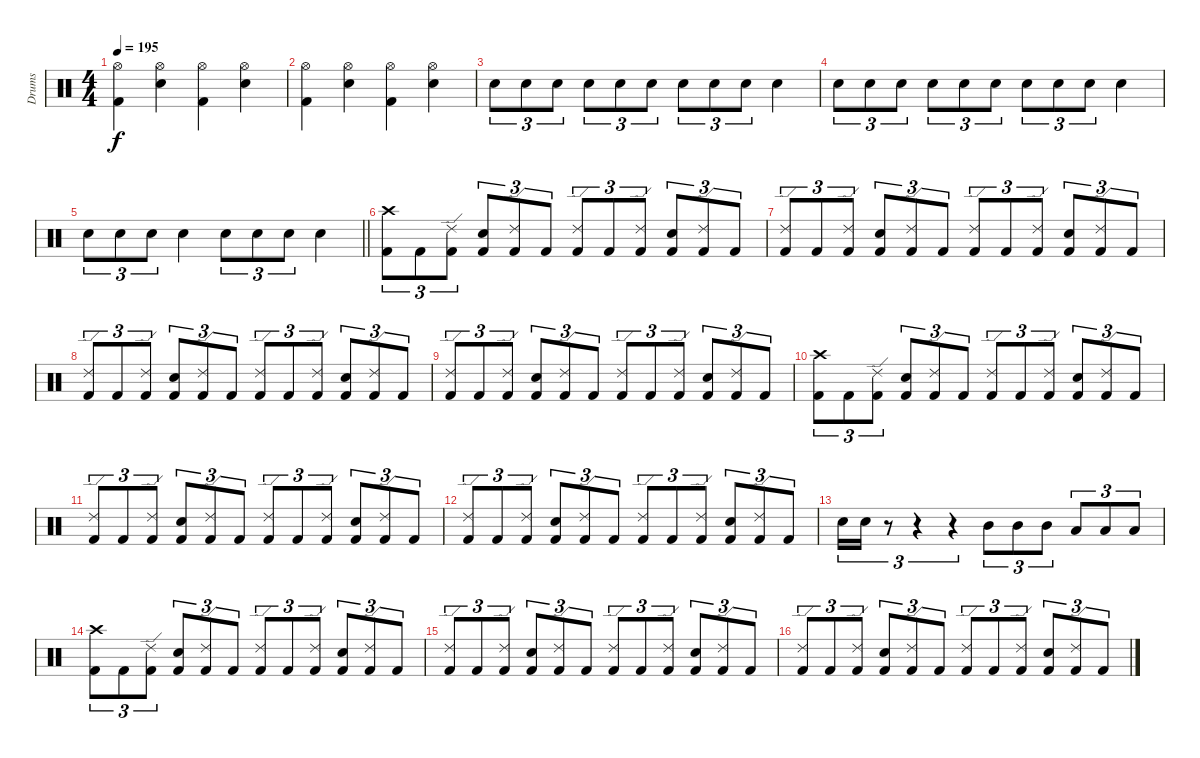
\track ("Drums" "Drums") {instrument percussion}
\staff {score}
\articulation defaults
\ts (4 4)
\tempo 195
\clef neutral
\ks c
("Hi-Hat (open)" "Kick (hit) 2").4{dy f} ("Hi-Hat (open)" "Snare (hit) 2").4 ("Hi-Hat (open)" "Kick (hit) 2").4 ("Hi-Hat (open)" "Snare (hit) 2").4 |
("Hi-Hat (open)" "Kick (hit) 2").4 ("Hi-Hat (open)" "Snare (hit) 2").4 ("Hi-Hat (open)" "Kick (hit) 2").4 ("Hi-Hat (open)" "Snare (hit) 2").4 |
"Snare (hit) 2".8{tu (3 2)} "Snare (hit) 2".8{tu (3 2)} "Snare (hit) 2".8{tu (3 2)} "Snare (hit) 2".8{tu (3 2)} "Snare (hit) 2".8{tu (3 2)} "Snare (hit) 2".8{tu (3 2)} "Snare (hit) 2".8{tu (3 2)} "Snare (hit) 2".8{tu (3 2)} "Snare (hit) 2".8{tu (3 2)} "Snare (hit) 2".4 |
"Snare (hit) 2".8{tu (3 2)} "Snare (hit) 2".8{tu (3 2)} "Snare (hit) 2".8{tu (3 2)} "Snare (hit) 2".8{tu (3 2)} "Snare (hit) 2".8{tu (3 2)} "Snare (hit) 2".8{tu (3 2)} "Snare (hit) 2".8{tu (3 2)} "Snare (hit) 2".8{tu (3 2)} "Snare (hit) 2".8{tu (3 2)} "Snare (hit) 2".4 |
\barLineRight lightlight "Snare (hit) 2".8{tu (3 2)} "Snare (hit) 2".8{tu (3 2)} "Snare (hit) 2".8{tu (3 2)} "Snare (hit) 2".4 "Snare (hit) 2".8{tu (3 2)} "Snare (hit) 2".8{tu (3 2)} "Snare (hit) 2".8{tu (3 2)} "Snare (hit) 2".4
|
("Crash high (hit)" "Kick (hit) 2").8{tu (3 2)} "Kick (hit) 2".8{tu (3 2)} ("Ride (edge) 2" "Kick (hit) 2").8{tu (3 2)} ("Snare (hit) 2" "Kick (hit) 2").8{tu (3 2)} ("Ride (edge) 2" "Kick (hit) 2").8{tu (3 2)} "Kick (hit) 2".8{tu (3 2)} ("Ride (edge) 2" "Kick (hit) 2").8{tu (3 2)} "Kick (hit) 2".8{tu (3 2)} ("Ride (edge) 2" "Kick (hit) 2").8{tu (3 2)} ("Snare (hit) 2" "Kick (hit) 2").8{tu (3 2)} ("Ride (edge) 2" "Kick (hit) 2").8{tu (3 2)} "Kick (hit) 2".8{tu (3 2)} |
("Ride (edge) 2" "Kick (hit) 2").8{tu (3 2)} "Kick (hit) 2".8{tu (3 2)} ("Ride (edge) 2" "Kick (hit) 2").8{tu (3 2)} ("Snare (hit) 2" "Kick (hit) 2").8{tu (3 2)} ("Ride (edge) 2" "Kick (hit) 2").8{tu (3 2)} "Kick (hit) 2".8{tu (3 2)} ("Ride (edge) 2" "Kick (hit) 2").8{tu (3 2)} "Kick (hit) 2".8{tu (3 2)} ("Ride (edge) 2" "Kick (hit) 2").8{tu (3 2)} ("Snare (hit) 2" "Kick (hit) 2").8{tu (3 2)} ("Ride (edge) 2" "Kick (hit) 2").8{tu (3 2)} "Kick (hit) 2".8{tu (3 2)} |
("Ride (edge) 2" "Kick (hit) 2").8{tu (3 2)} "Kick (hit) 2".8{tu (3 2)} ("Ride (edge) 2" "Kick (hit) 2").8{tu (3 2)} ("Snare (hit) 2" "Kick (hit) 2").8{tu (3 2)} ("Ride (edge) 2" "Kick (hit) 2").8{tu (3 2)} "Kick (hit) 2".8{tu (3 2)} ("Ride (edge) 2" "Kick (hit) 2").8{tu (3 2)} "Kick (hit) 2".8{tu (3 2)} ("Ride (edge) 2" "Kick (hit) 2").8{tu (3 2)} ("Snare (hit) 2" "Kick (hit) 2").8{tu (3 2)} ("Ride (edge) 2" "Kick (hit) 2").8{tu (3 2)} "Kick (hit) 2".8{tu (3 2)} |
("Ride (edge) 2" "Kick (hit) 2").8{tu (3 2)} "Kick (hit) 2".8{tu (3 2)} ("Ride (edge) 2" "Kick (hit) 2").8{tu (3 2)} ("Snare (hit) 2" "Kick (hit) 2").8{tu (3 2)} ("Ride (edge) 2" "Kick (hit) 2").8{tu (3 2)} "Kick (hit) 2".8{tu (3 2)} ("Ride (edge) 2" "Kick (hit) 2").8{tu (3 2)} "Kick (hit) 2".8{tu (3 2)} ("Ride (edge) 2" "Kick (hit) 2").8{tu (3 2)} ("Snare (hit) 2" "Kick (hit) 2").8{tu (3 2)} ("Ride (edge) 2" "Kick (hit) 2").8{tu (3 2)} "Kick (hit) 2".8{tu (3 2)} |
("Crash high (hit)" "Kick (hit) 2").8{tu (3 2)} "Kick (hit) 2".8{tu (3 2)} ("Ride (edge) 2" "Kick (hit) 2").8{tu (3 2)} ("Snare (hit) 2" "Kick (hit) 2").8{tu (3 2)} ("Ride (edge) 2" "Kick (hit) 2").8{tu (3 2)} "Kick (hit) 2".8{tu (3 2)} ("Ride (edge) 2" "Kick (hit) 2").8{tu (3 2)} "Kick (hit) 2".8{tu (3 2)} ("Ride (edge) 2" "Kick (hit) 2").8{tu (3 2)} ("Snare (hit) 2" "Kick (hit) 2").8{tu (3 2)} ("Ride (edge) 2" "Kick (hit) 2").8{tu (3 2)} "Kick (hit) 2".8{tu (3 2)} |
("Ride (edge) 2" "Kick (hit) 2").8{tu (3 2)} "Kick (hit) 2".8{tu (3 2)} ("Ride (edge) 2" "Kick (hit) 2").8{tu (3 2)} ("Snare (hit) 2" "Kick (hit) 2").8{tu (3 2)} ("Ride (edge) 2" "Kick (hit) 2").8{tu (3 2)} "Kick (hit) 2".8{tu (3 2)} ("Ride (edge) 2" "Kick (hit) 2").8{tu (3 2)} "Kick (hit) 2".8{tu (3 2)} ("Ride (edge) 2" "Kick (hit) 2").8{tu (3 2)} ("Snare (hit) 2" "Kick (hit) 2").8{tu (3 2)} ("Ride (edge) 2" "Kick (hit) 2").8{tu (3 2)} "Kick (hit) 2".8{tu (3 2)} |
("Ride (edge) 2" "Kick (hit) 2").8{tu (3 2)} "Kick (hit) 2".8{tu (3 2)} ("Ride (edge) 2" "Kick (hit) 2").8{tu (3 2)} ("Snare (hit) 2" "Kick (hit) 2").8{tu (3 2)} ("Ride (edge) 2" "Kick (hit) 2").8{tu (3 2)} "Kick (hit) 2".8{tu (3 2)} ("Ride (edge) 2" "Kick (hit) 2").8{tu (3 2)} "Kick (hit) 2".8{tu (3 2)} ("Ride (edge) 2" "Kick (hit) 2").8{tu (3 2)} ("Snare (hit) 2" "Kick (hit) 2").8{tu (3 2)} ("Ride (edge) 2" "Kick (hit) 2").8{tu (3 2)} "Kick (hit) 2".8{tu (3 2)} |
"Snare (hit) 2".16{tu (3 2)} "Snare (hit) 2".16{tu (3 2)} r.8{tu (3 2) volume 9} r.4{tu (3 2)} r.4{tu (3 2)} "Mid Tom (hit)".8{tu (3 2) volume 13} "Mid Tom (hit)".8{tu (3 2)} "Mid Tom (hit)".8{tu (3 2)} "Low Tom (hit)".8{tu (3 2)} "Low Tom (hit)".8{tu (3 2)} "Low Tom (hit)".8{tu (3 2)} |
("Crash high (hit)" "Kick (hit) 2").8{tu (3 2)} "Kick (hit) 2".8{tu (3 2)} ("Ride (edge) 2" "Kick (hit) 2").8{tu (3 2)} ("Snare (hit) 2" "Kick (hit) 2").8{tu (3 2)} ("Ride (edge) 2" "Kick (hit) 2").8{tu (3 2)} "Kick (hit) 2".8{tu (3 2)} ("Ride (edge) 2" "Kick (hit) 2").8{tu (3 2)} "Kick (hit) 2".8{tu (3 2)} ("Ride (edge) 2" "Kick (hit) 2").8{tu (3 2)} ("Snare (hit) 2" "Kick (hit) 2").8{tu (3 2)} ("Ride (edge) 2" "Kick (hit) 2").8{tu (3 2)} "Kick (hit) 2".8{tu (3 2)} |
("Ride (edge) 2" "Kick (hit) 2").8{tu (3 2)} "Kick (hit) 2".8{tu (3 2)} ("Ride (edge) 2" "Kick (hit) 2").8{tu (3 2)} ("Snare (hit) 2" "Kick (hit) 2").8{tu (3 2)} ("Ride (edge) 2" "Kick (hit) 2").8{tu (3 2)} "Kick (hit) 2".8{tu (3 2)} ("Ride (edge) 2" "Kick (hit) 2").8{tu (3 2)} "Kick (hit) 2".8{tu (3 2)} ("Ride (edge) 2" "Kick (hit) 2").8{tu (3 2)} ("Snare (hit) 2" "Kick (hit) 2").8{tu (3 2)} ("Ride (edge) 2" "Kick (hit) 2").8{tu (3 2)} "Kick (hit) 2".8{tu (3 2)} |
("Ride (edge) 2" "Kick (hit) 2").8{tu (3 2)} "Kick (hit) 2".8{tu (3 2)} ("Ride (edge) 2" "Kick (hit) 2").8{tu (3 2)} ("Snare (hit) 2" "Kick (hit) 2").8{tu (3 2)} ("Ride (edge) 2" "Kick (hit) 2").8{tu (3 2)} "Kick (hit) 2".8{tu (3 2)} ("Ride (edge) 2" "Kick (hit) 2").8{tu (3 2)} "Kick (hit) 2".8{tu (3 2)} ("Ride (edge) 2" "Kick (hit) 2").8{tu (3 2)} ("Snare (hit) 2" "Kick (hit) 2").8{tu (3 2)} ("Ride (edge) 2" "Kick (hit) 2").8{tu (3 2)} "Kick (hit) 2".8{tu (3 2)}
